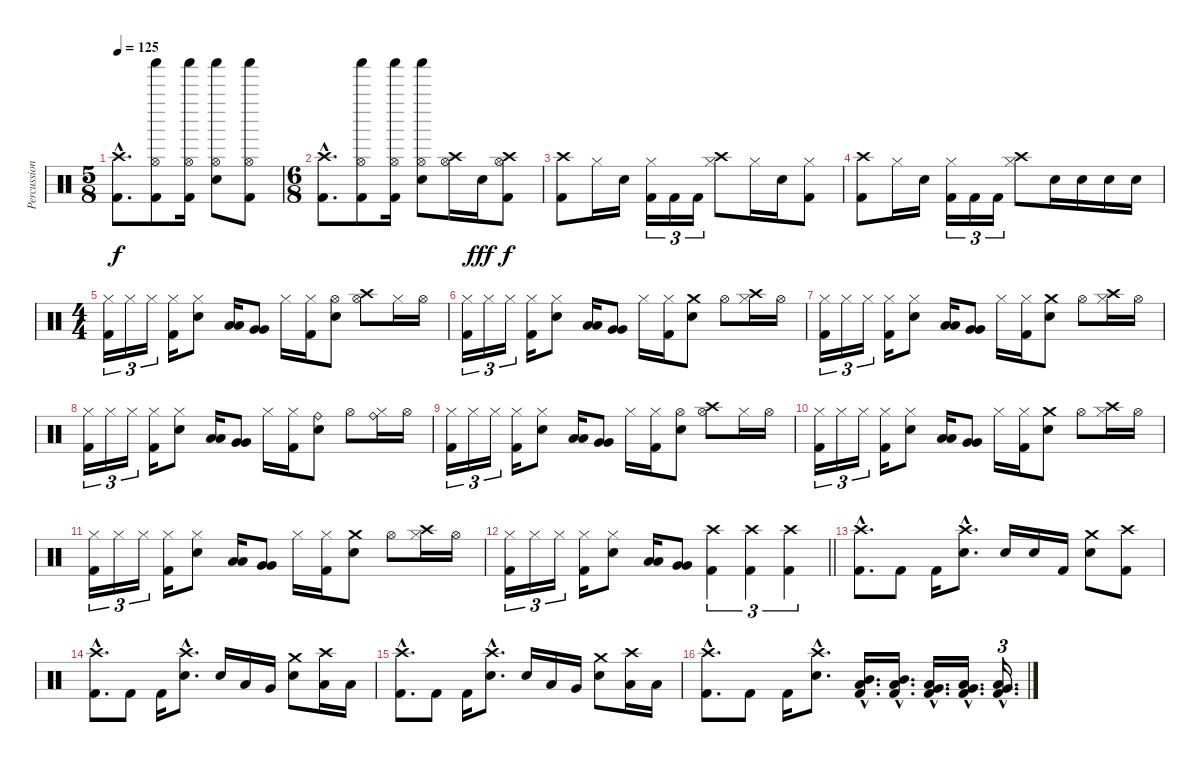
\track ("Percussion" "Percussion") {instrument percussion}
\staff {score}
\articulation defaults
\ts (5 8)
\tempo 125
\clef neutral
\ks c
("Crash high (hit)"{hac} "Kick (hit) 2"{hac}).8{d dy f} ("Shaker (hit)" "Hi-Hat (open)" "Kick (hit) 2").8 ("Shaker (hit)" "Hi-Hat (open)" "Kick (hit) 2").16 ("Shaker (hit)" "Hi-Hat (open)" "Electric Snare (hit)").8 ("Shaker (hit)" "Hi-Hat (open)" "Kick (hit) 2").8 |
\ts (6 8)
("Crash high (hit)"{hac} "Kick (hit) 2"{hac}).8{d} ("Shaker (hit)" "Hi-Hat (open)" "Kick (hit) 2").8 ("Shaker (hit)" "Hi-Hat (open)" "Kick (hit) 2").16 ("Shaker (hit)" "Hi-Hat (open)" "Electric Snare (hit)").8 ("Crash high (hit)" "Hi-Hat (open)").16 "Electric Snare (hit)".16{dy fff} ("Crash high (hit)" "Hi-Hat (open)" "Kick (hit) 2").8{dy f} |
("Crash high (hit)" "Kick (hit) 2").8 "Hi-Hat (closed)".16 "Electric Snare (hit)".16 ("Hi-Hat (closed)" "Kick (hit) 2").16{tu (3 2)} "Kick (hit) 2".16{tu (3 2)} "Kick (hit) 2".16{tu (3 2)} ("Crash high (hit)" "Hi-Hat (closed)").8 "Hi-Hat (closed)".16 "Electric Snare (hit)".16 ("Hi-Hat (closed)" "Kick (hit) 2").8 |
("Crash high (hit)" "Kick (hit) 2").8 "Hi-Hat (closed)".16 "Electric Snare (hit)".16 ("Hi-Hat (closed)" "Kick (hit) 2").16{tu (3 2)} "Kick (hit) 2".16{tu (3 2)} "Kick (hit) 2".16{tu (3 2)} ("Crash high (hit)" "Hi-Hat (closed)").8 "Electric Snare (hit)".16 "Electric Snare (hit)".16 "Electric Snare (hit)".16 "Electric Snare (hit)".16 |
\ts (4 4)
("Hi-Hat (closed)" "Kick (hit) 2").16{tu (3 2)} "Hi-Hat (closed)".16{tu (3 2)} "Hi-Hat (closed)".16{tu (3 2)} ("Hi-Hat (closed)" "Kick (hit) 2").16 ("Hi-Hat (closed)" "Electric Snare (hit)").8 ("Low Tom (hit)" "Low Tom (hit)").16 ("Very Low Tom (hit)" "Very Low Tom (hit)").8 "Hi-Hat (closed)".16 ("Hi-Hat (closed)" "Kick (hit) 2").16 ("Hi-Hat (open)" "Electric Snare (hit)").8 ("Crash high (hit)" "Hi-Hat (open)").8 "Hi-Hat (closed)".16 "Hi-Hat (open)".16 |
("Hi-Hat (closed)" "Kick (hit) 2").16{tu (3 2)} "Hi-Hat (closed)".16{tu (3 2)} "Hi-Hat (closed)".16{tu (3 2)} ("Hi-Hat (closed)" "Kick (hit) 2").16 ("Hi-Hat (closed)" "Electric Snare (hit)").8 ("Low Tom (hit)" "Low Tom (hit)").16 ("Very Low Tom (hit)" "Very Low Tom (hit)").8 "Hi-Hat (closed)".16 ("Hi-Hat (closed)" "Kick (hit) 2").16 ("Crash medium (hit)" "Electric Snare (hit)").8 "Hi-Hat (open)".8 ("Crash high (hit)" "Hi-Hat (closed)").16 "Hi-Hat (open)".16 |
("Hi-Hat (closed)" "Kick (hit) 2").16{tu (3 2)} "Hi-Hat (closed)".16{tu (3 2)} "Hi-Hat (closed)".16{tu (3 2)} ("Hi-Hat (closed)" "Kick (hit) 2").16 ("Hi-Hat (closed)" "Electric Snare (hit)").8 ("Low Tom (hit)" "Low Tom (hit)").16 ("Very Low Tom (hit)" "Very Low Tom (hit)").8 "Hi-Hat (closed)".16 ("Hi-Hat (closed)" "Kick (hit) 2").16 ("Crash medium (hit)" "Electric Snare (hit)").8 "Hi-Hat (open)".8 ("Crash high (hit)" "Hi-Hat (closed)").16 "Hi-Hat (open)".16 |
("Hi-Hat (closed)" "Kick (hit) 2").16{tu (3 2)} "Hi-Hat (closed)".16{tu (3 2)} "Hi-Hat (closed)".16{tu (3 2)} ("Hi-Hat (closed)" "Kick (hit) 2").16 ("Hi-Hat (closed)" "Electric Snare (hit)").8 ("Low Tom (hit)" "Low Tom (hit)").16 ("Very Low Tom (hit)" "Very Low Tom (hit)").8 "Hi-Hat (closed)".16 ("Hi-Hat (closed)" "Kick (hit) 2").16 ("Ride (bell)" "Electric Snare (hit)").8 "Hi-Hat (open)".8 ("Ride (bell)" "Hi-Hat (closed)").16 "Hi-Hat (open)".16 |
("Hi-Hat (closed)" "Kick (hit) 2").16{tu (3 2)} "Hi-Hat (closed)".16{tu (3 2)} "Hi-Hat (closed)".16{tu (3 2)} ("Hi-Hat (closed)" "Kick (hit) 2").16 ("Hi-Hat (closed)" "Electric Snare (hit)").8 ("Low Tom (hit)" "Low Tom (hit)").16 ("Very Low Tom (hit)" "Very Low Tom (hit)").8 "Hi-Hat (closed)".16 ("Hi-Hat (closed)" "Kick (hit) 2").16 ("Hi-Hat (open)" "Electric Snare (hit)").8 ("Crash high (hit)" "Hi-Hat (open)").8 "Hi-Hat (closed)".16 "Hi-Hat (open)".16 |
("Hi-Hat (closed)" "Kick (hit) 2").16{tu (3 2)} "Hi-Hat (closed)".16{tu (3 2)} "Hi-Hat (closed)".16{tu (3 2)} ("Hi-Hat (closed)" "Kick (hit) 2").16 ("Hi-Hat (closed)" "Electric Snare (hit)").8 ("Low Tom (hit)" "Low Tom (hit)").16 ("Very Low Tom (hit)" "Very Low Tom (hit)").8 "Hi-Hat (closed)".16 ("Hi-Hat (closed)" "Kick (hit) 2").16 ("Crash medium (hit)" "Electric Snare (hit)").8 "Hi-Hat (open)".8 ("Crash high (hit)" "Hi-Hat (closed)").16 "Hi-Hat (open)".16 |
("Hi-Hat (closed)" "Kick (hit) 2").16{tu (3 2)} "Hi-Hat (closed)".16{tu (3 2)} "Hi-Hat (closed)".16{tu (3 2)} ("Hi-Hat (closed)" "Kick (hit) 2").16 ("Hi-Hat (closed)" "Electric Snare (hit)").8 ("Low Tom (hit)" "Low Tom (hit)").16 ("Very Low Tom (hit)" "Very Low Tom (hit)").8 "Hi-Hat (closed)".16 ("Hi-Hat (closed)" "Kick (hit) 2").16 ("Crash medium (hit)" "Electric Snare (hit)").8 "Hi-Hat (open)".8 ("Crash high (hit)" "Hi-Hat (closed)").16 "Hi-Hat (open)".16 |
\barLineRight lightlight
("Hi-Hat (closed)" "Kick (hit) 2").16{tu (3 2)} "Hi-Hat (closed)".16{tu (3 2)} "Hi-Hat (closed)".16{tu (3 2)} ("Hi-Hat (closed)" "Kick (hit) 2").16 ("Hi-Hat (closed)" "Electric Snare (hit)").8 ("Low Tom (hit)" "Low Tom (hit)").16 ("Very Low Tom (hit)" "Very Low Tom (hit)").8 ("Crash high (hit)" "Kick (hit) 2").4{tu (3 2)} ("Crash high (hit)" "Kick (hit) 2").4{tu (3 2)} ("Crash high (hit)" "Kick (hit) 2").4{tu (3 2)} |
("Crash high (hit)"{hac} "Kick (hit) 2"{hac}).8{d} "Kick (hit) 2".8 "Kick (hit) 2".16 ("Crash high (hit)"{hac} "Electric Snare (hit)"{hac}).8{d} "Electric Snare (hit)".16 "Electric Snare (hit)".16 "Kick (hit) 2".16 ("Crash medium (hit)" "Electric Snare (hit)").8 ("Crash high (hit)" "Kick (hit) 2").8 |
("Crash high (hit)"{hac} "Kick (hit) 2"{hac}).8{d} "Kick (hit) 2".8 "Kick (hit) 2".16 ("Crash high (hit)"{hac} "Electric Snare (hit)"{hac}).8{d} "Electric Snare (hit)".16 "Low Tom (hit)".16 "Very Low Tom (hit)".16 ("Crash medium (hit)" "Electric Snare (hit)").8 ("Crash high (hit)" "Low Floor Tom (hit)").16 "Low Floor Tom (hit)".16 |
("Crash high (hit)"{hac} "Kick (hit) 2"{hac}).8{d} "Kick (hit) 2".8 "Kick (hit) 2".16 ("Crash high (hit)"{hac} "Electric Snare (hit)"{hac}).8{d} "Electric Snare (hit)".16 "Low Tom (hit)".16 "Very Low Tom (hit)".16 ("Crash medium (hit)" "Electric Snare (hit)").8 ("Crash high (hit)" "Low Floor Tom (hit)").16 "Low Floor Tom (hit)".16 |
("Crash high (hit)"{hac} "Kick (hit) 2"{hac}).8{d} "Kick (hit) 2".8 "Kick (hit) 2".16 ("Crash high (hit)"{hac} "Electric Snare (hit)"{hac}).8{d} ("Mid Tom (hit)"{hac} "Low Floor Tom (hit)"{hac} "Kick (hit) 2"{hac}).16{d} ("Mid Tom (hit)"{hac} "Low Floor Tom (hit)"{hac} "Kick (hit) 2"{hac}).16{d} ("Very Low Tom (hit)"{hac} "Low Floor Tom (hit)"{hac} "Kick (hit) 2"{hac}).16{d} ("Very Low Tom (hit)"{hac} "Low Floor Tom (hit)"{hac} "Kick (hit) 2"{hac}).16{d} ("Very Low Tom (hit)"{hac} "Low Floor Tom (hit)"{hac} "Kick (hit) 2"{hac}).16{d tu (3 2)}
